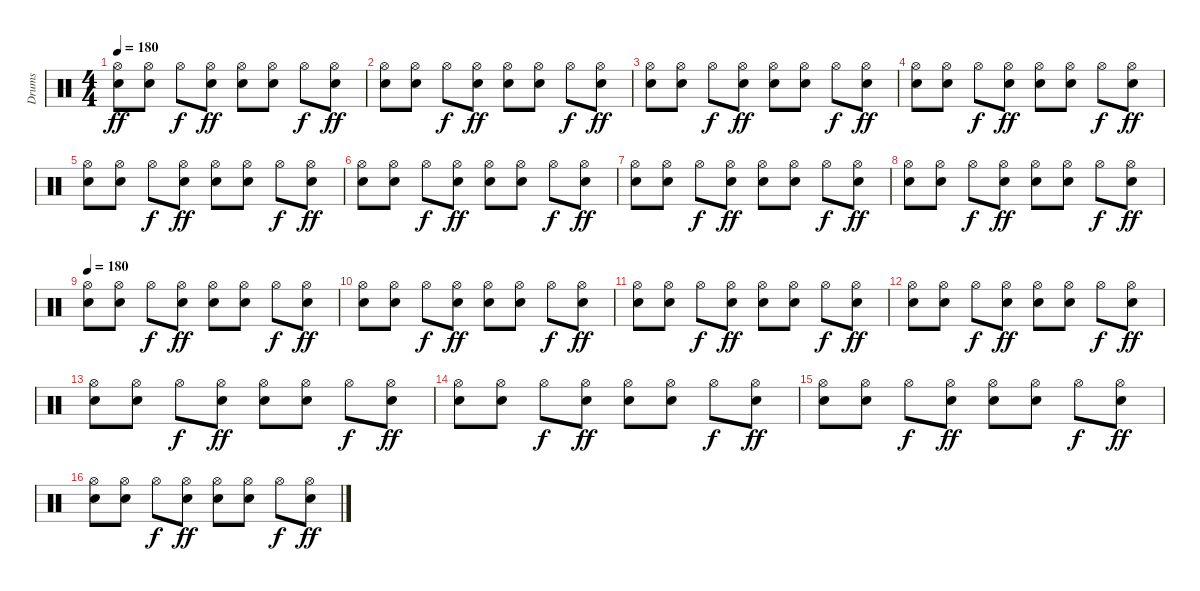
\track ("Drums" "Drums") {instrument percussion}
\staff {score}
\articulation defaults
\ts (4 4)
\tempo 180
\clef neutral
\ks c
("Hi-Hat (open)" "Electric Snare (hit)").8{dy ff} ("Hi-Hat (open)" "Electric Snare (hit)").8 "Hi-Hat (open)".8{dy f} ("Hi-Hat (open)" "Electric Snare (hit)").8{dy ff} ("Hi-Hat (open)" "Electric Snare (hit)").8 ("Hi-Hat (open)" "Electric Snare (hit)").8 "Hi-Hat (open)".8{dy f} ("Hi-Hat (open)" "Electric Snare (hit)").8{dy ff} |
("Hi-Hat (open)" "Electric Snare (hit)").8 ("Hi-Hat (open)" "Electric Snare (hit)").8 "Hi-Hat (open)".8{dy f} ("Hi-Hat (open)" "Electric Snare (hit)").8{dy ff} ("Hi-Hat (open)" "Electric Snare (hit)").8 ("Hi-Hat (open)" "Electric Snare (hit)").8 "Hi-Hat (open)".8{dy f} ("Hi-Hat (open)" "Electric Snare (hit)").8{dy ff} |
("Hi-Hat (open)" "Electric Snare (hit)").8 ("Hi-Hat (open)" "Electric Snare (hit)").8 "Hi-Hat (open)".8{dy f} ("Hi-Hat (open)" "Electric Snare (hit)").8{dy ff} ("Hi-Hat (open)" "Electric Snare (hit)").8 ("Hi-Hat (open)" "Electric Snare (hit)").8 "Hi-Hat (open)".8{dy f} ("Hi-Hat (open)" "Electric Snare (hit)").8{dy ff} |
("Hi-Hat (open)" "Electric Snare (hit)").8 ("Hi-Hat (open)" "Electric Snare (hit)").8 "Hi-Hat (open)".8{dy f} ("Hi-Hat (open)" "Electric Snare (hit)").8{dy ff} ("Hi-Hat (open)" "Electric Snare (hit)").8 ("Hi-Hat (open)" "Electric Snare (hit)").8 "Hi-Hat (open)".8{dy f} ("Hi-Hat (open)" "Electric Snare (hit)").8{dy ff} |
("Hi-Hat (open)" "Electric Snare (hit)").8 ("Hi-Hat (open)" "Electric Snare (hit)").8 "Hi-Hat (open)".8{dy f} ("Hi-Hat (open)" "Electric Snare (hit)").8{dy ff} ("Hi-Hat (open)" "Electric Snare (hit)").8 ("Hi-Hat (open)" "Electric Snare (hit)").8 "Hi-Hat (open)".8{dy f} ("Hi-Hat (open)" "Electric Snare (hit)").8{dy ff} |
("Hi-Hat (open)" "Electric Snare (hit)").8 ("Hi-Hat (open)" "Electric Snare (hit)").8 "Hi-Hat (open)".8{dy f} ("Hi-Hat (open)" "Electric Snare (hit)").8{dy ff} ("Hi-Hat (open)" "Electric Snare (hit)").8 ("Hi-Hat (open)" "Electric Snare (hit)").8 "Hi-Hat (open)".8{dy f} ("Hi-Hat (open)" "Electric Snare (hit)").8{dy ff} |
("Hi-Hat (open)" "Electric Snare (hit)").8 ("Hi-Hat (open)" "Electric Snare (hit)").8 "Hi-Hat (open)".8{dy f} ("Hi-Hat (open)" "Electric Snare (hit)").8{dy ff} ("Hi-Hat (open)" "Electric Snare (hit)").8 ("Hi-Hat (open)" "Electric Snare (hit)").8 "Hi-Hat (open)".8{dy f} ("Hi-Hat (open)" "Electric Snare (hit)").8{dy ff} |
("Hi-Hat (open)" "Electric Snare (hit)").8 ("Hi-Hat (open)" "Electric Snare (hit)").8 "Hi-Hat (open)".8{dy f} ("Hi-Hat (open)" "Electric Snare (hit)").8{dy ff} ("Hi-Hat (open)" "Electric Snare (hit)").8 ("Hi-Hat (open)" "Electric Snare (hit)").8 "Hi-Hat (open)".8{dy f} ("Hi-Hat (open)" "Electric Snare (hit)").8{dy ff} |
\tempo 180
("Hi-Hat (open)" "Electric Snare (hit)").8 ("Hi-Hat (open)" "Electric Snare (hit)").8 "Hi-Hat (open)".8{dy f} ("Hi-Hat (open)" "Electric Snare (hit)").8{dy ff} ("Hi-Hat (open)" "Electric Snare (hit)").8 ("Hi-Hat (open)" "Electric Snare (hit)").8 "Hi-Hat (open)".8{dy f} ("Hi-Hat (open)" "Electric Snare (hit)").8{dy ff} |
("Hi-Hat (open)" "Electric Snare (hit)").8 ("Hi-Hat (open)" "Electric Snare (hit)").8 "Hi-Hat (open)".8{dy f} ("Hi-Hat (open)" "Electric Snare (hit)").8{dy ff} ("Hi-Hat (open)" "Electric Snare (hit)").8 ("Hi-Hat (open)" "Electric Snare (hit)").8 "Hi-Hat (open)".8{dy f} ("Hi-Hat (open)" "Electric Snare (hit)").8{dy ff} |
("Hi-Hat (open)" "Electric Snare (hit)").8 ("Hi-Hat (open)" "Electric Snare (hit)").8 "Hi-Hat (open)".8{dy f} ("Hi-Hat (open)" "Electric Snare (hit)").8{dy ff} ("Hi-Hat (open)" "Electric Snare (hit)").8 ("Hi-Hat (open)" "Electric Snare (hit)").8 "Hi-Hat (open)".8{dy f} ("Hi-Hat (open)" "Electric Snare (hit)").8{dy ff} |
("Hi-Hat (open)" "Electric Snare (hit)").8 ("Hi-Hat (open)" "Electric Snare (hit)").8 "Hi-Hat (open)".8{dy f} ("Hi-Hat (open)" "Electric Snare (hit)").8{dy ff} ("Hi-Hat (open)" "Electric Snare (hit)").8 ("Hi-Hat (open)" "Electric Snare (hit)").8 "Hi-Hat (open)".8{dy f} ("Hi-Hat (open)" "Electric Snare (hit)").8{dy ff} |
("Hi-Hat (open)" "Electric Snare (hit)").8 ("Hi-Hat (open)" "Electric Snare (hit)").8 "Hi-Hat (open)".8{dy f} ("Hi-Hat (open)" "Electric Snare (hit)").8{dy ff} ("Hi-Hat (open)" "Electric Snare (hit)").8 ("Hi-Hat (open)" "Electric Snare (hit)").8 "Hi-Hat (open)".8{dy f} ("Hi-Hat (open)" "Electric Snare (hit)").8{dy ff} |
("Hi-Hat (open)" "Electric Snare (hit)").8 ("Hi-Hat (open)" "Electric Snare (hit)").8 "Hi-Hat (open)".8{dy f} ("Hi-Hat (open)" "Electric Snare (hit)").8{dy ff} ("Hi-Hat (open)" "Electric Snare (hit)").8 ("Hi-Hat (open)" "Electric Snare (hit)").8 "Hi-Hat (open)".8{dy f} ("Hi-Hat (open)" "Electric Snare (hit)").8{dy ff} |
("Hi-Hat (open)" "Electric Snare (hit)").8 ("Hi-Hat (open)" "Electric Snare (hit)").8 "Hi-Hat (open)".8{dy f} ("Hi-Hat (open)" "Electric Snare (hit)").8{dy ff} ("Hi-Hat (open)" "Electric Snare (hit)").8 ("Hi-Hat (open)" "Electric Snare (hit)").8 "Hi-Hat (open)".8{dy f} ("Hi-Hat (open)" "Electric Snare (hit)").8{dy ff} |
("Hi-Hat (open)" "Electric Snare (hit)").8 ("Hi-Hat (open)" "Electric Snare (hit)").8 "Hi-Hat (open)".8{dy f} ("Hi-Hat (open)" "Electric Snare (hit)").8{dy ff} ("Hi-Hat (open)" "Electric Snare (hit)").8 ("Hi-Hat (open)" "Electric Snare (hit)").8 "Hi-Hat (open)".8{dy f} ("Hi-Hat (open)" "Electric Snare (hit)").8{dy ff}
